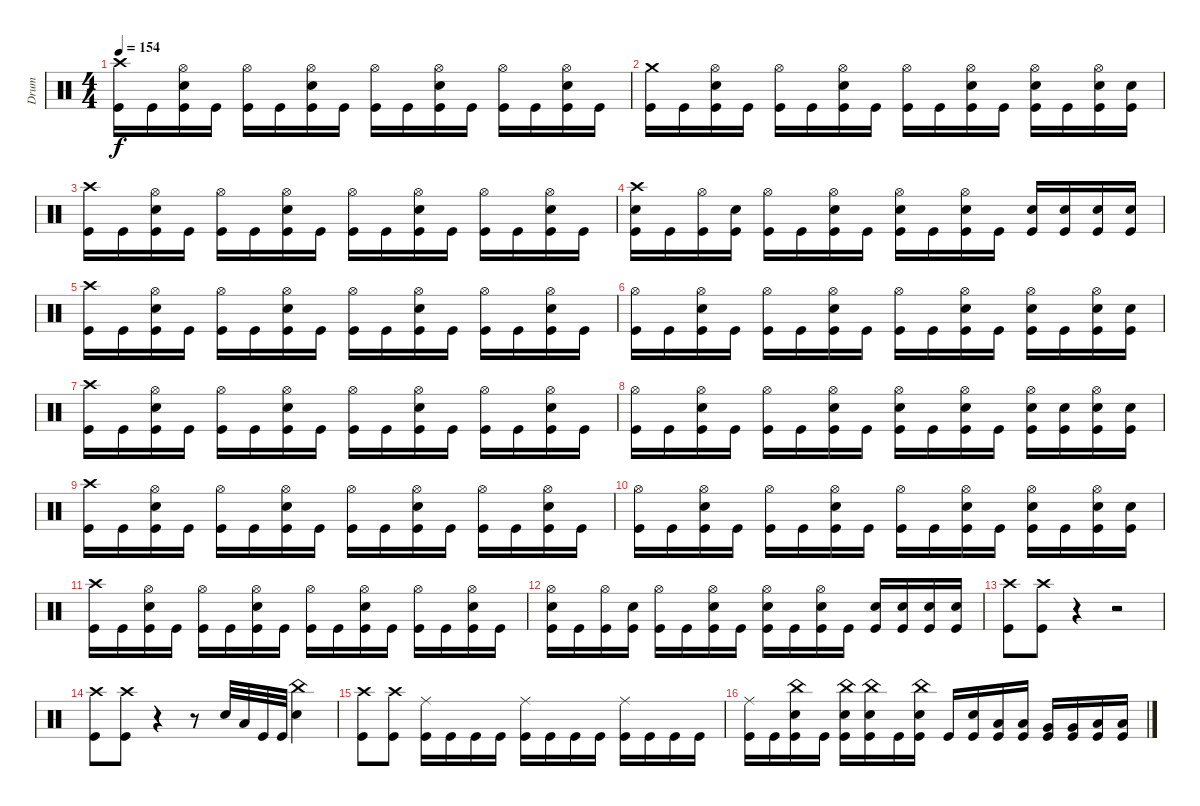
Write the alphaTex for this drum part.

\track ("Drum" "Drum") {instrument percussion}
\staff {score}
\articulation defaults
\ts (4 4)
\tempo 154
\clef neutral
\ks c
("Kick (hit)" "Crash high (hit)").16{dy f} "Kick (hit)".16 ("Kick (hit)" "Electric Snare (hit)" "Hi-Hat (open)").16 "Kick (hit)".16 ("Kick (hit)" "Hi-Hat (open)").16 "Kick (hit)".16 ("Kick (hit)" "Electric Snare (hit)" "Hi-Hat (open)").16 "Kick (hit)".16 ("Kick (hit)" "Hi-Hat (open)").16 "Kick (hit)".16 ("Kick (hit)" "Electric Snare (hit)" "Hi-Hat (open)").16 "Kick (hit)".16 ("Kick (hit)" "Hi-Hat (open)").16 "Kick (hit)".16 ("Kick (hit)" "Electric Snare (hit)" "Hi-Hat (open)").16 "Kick (hit)".16 |
("Kick (hit)" "Crash medium (hit)").16 "Kick (hit)".16 ("Kick (hit)" "Electric Snare (hit)" "Hi-Hat (open)").16 "Kick (hit)".16 ("Kick (hit)" "Hi-Hat (open)").16 "Kick (hit)".16 ("Kick (hit)" "Electric Snare (hit)" "Hi-Hat (open)").16 "Kick (hit)".16 ("Kick (hit)" "Hi-Hat (open)").16 "Kick (hit)".16 ("Kick (hit)" "Electric Snare (hit)" "Hi-Hat (open)").16 "Kick (hit)".16 ("Kick (hit)" "Electric Snare (hit)" "Hi-Hat (open)").16 "Kick (hit)".16 ("Kick (hit)" "Electric Snare (hit)" "Hi-Hat (open)").16 ("Kick (hit)" "Electric Snare (hit)").16 |
("Kick (hit)" "Crash high (hit)").16 "Kick (hit)".16 ("Kick (hit)" "Electric Snare (hit)" "Hi-Hat (open)").16 "Kick (hit)".16 ("Kick (hit)" "Hi-Hat (open)").16 "Kick (hit)".16 ("Kick (hit)" "Electric Snare (hit)" "Hi-Hat (open)").16 "Kick (hit)".16 ("Kick (hit)" "Hi-Hat (open)").16 "Kick (hit)".16 ("Kick (hit)" "Electric Snare (hit)" "Hi-Hat (open)").16 "Kick (hit)".16 ("Kick (hit)" "Hi-Hat (open)").16 "Kick (hit)".16 ("Kick (hit)" "Electric Snare (hit)" "Hi-Hat (open)").16 "Kick (hit)".16 |
("Kick (hit)" "Electric Snare (hit)" "Crash high (hit)").16 "Kick (hit)".16 ("Kick (hit)" "Hi-Hat (open)").16 ("Kick (hit)" "Electric Snare (hit)").16 ("Kick (hit)" "Hi-Hat (open)").16 "Kick (hit)".16 ("Kick (hit)" "Electric Snare (hit)" "Hi-Hat (open)").16 "Kick (hit)".16 ("Kick (hit)" "Electric Snare (hit)" "Hi-Hat (open)").16 "Kick (hit)".16 ("Kick (hit)" "Electric Snare (hit)" "Hi-Hat (open)").16 "Kick (hit)".16 ("Kick (hit)" "Electric Snare (hit)").16 ("Kick (hit)" "Electric Snare (hit)").16 ("Kick (hit)" "Electric Snare (hit)").16 ("Kick (hit)" "Electric Snare (hit)").16 |
("Kick (hit)" "Crash high (hit)").16 "Kick (hit)".16 ("Kick (hit)" "Electric Snare (hit)" "Hi-Hat (open)").16 "Kick (hit)".16 ("Kick (hit)" "Hi-Hat (open)").16 "Kick (hit)".16 ("Kick (hit)" "Electric Snare (hit)" "Hi-Hat (open)").16 "Kick (hit)".16 ("Kick (hit)" "Hi-Hat (open)").16 "Kick (hit)".16 ("Kick (hit)" "Electric Snare (hit)" "Hi-Hat (open)").16 "Kick (hit)".16 ("Kick (hit)" "Hi-Hat (open)").16 "Kick (hit)".16 ("Kick (hit)" "Electric Snare (hit)" "Hi-Hat (open)").16 "Kick (hit)".16 |
("Kick (hit)" "Hi-Hat (open)").16 "Kick (hit)".16 ("Kick (hit)" "Electric Snare (hit)" "Hi-Hat (open)").16 "Kick (hit)".16 ("Kick (hit)" "Hi-Hat (open)").16 "Kick (hit)".16 ("Kick (hit)" "Electric Snare (hit)" "Hi-Hat (open)").16 "Kick (hit)".16 ("Kick (hit)" "Hi-Hat (open)").16 "Kick (hit)".16 ("Kick (hit)" "Electric Snare (hit)" "Hi-Hat (open)").16 "Kick (hit)".16 ("Kick (hit)" "Electric Snare (hit)" "Hi-Hat (open)").16 "Kick (hit)".16 ("Kick (hit)" "Electric Snare (hit)" "Hi-Hat (open)").16 ("Kick (hit)" "Electric Snare (hit)").16 |
("Kick (hit)" "Crash high (hit)").16 "Kick (hit)".16 ("Kick (hit)" "Electric Snare (hit)" "Hi-Hat (open)").16 "Kick (hit)".16 ("Kick (hit)" "Hi-Hat (open)").16 "Kick (hit)".16 ("Kick (hit)" "Electric Snare (hit)" "Hi-Hat (open)").16 "Kick (hit)".16 ("Kick (hit)" "Hi-Hat (open)").16 "Kick (hit)".16 ("Kick (hit)" "Electric Snare (hit)" "Hi-Hat (open)").16 "Kick (hit)".16 ("Kick (hit)" "Hi-Hat (open)").16 "Kick (hit)".16 ("Kick (hit)" "Electric Snare (hit)" "Hi-Hat (open)").16 "Kick (hit)".16 |
("Kick (hit)" "Hi-Hat (open)").16 "Kick (hit)".16 ("Kick (hit)" "Electric Snare (hit)" "Hi-Hat (open)").16 "Kick (hit)".16 ("Kick (hit)" "Hi-Hat (open)").16 "Kick (hit)".16 ("Kick (hit)" "Electric Snare (hit)" "Hi-Hat (open)").16 "Kick (hit)".16 ("Kick (hit)" "Electric Snare (hit)" "Hi-Hat (open)").16 "Kick (hit)".16 ("Kick (hit)" "Electric Snare (hit)" "Hi-Hat (open)").16 "Kick (hit)".16 ("Kick (hit)" "Electric Snare (hit)" "Hi-Hat (open)").16 ("Kick (hit)" "Electric Snare (hit)").16 ("Kick (hit)" "Electric Snare (hit)" "Hi-Hat (open)").16 ("Kick (hit)" "Electric Snare (hit)").16 |
("Kick (hit)" "Crash high (hit)").16 "Kick (hit)".16 ("Kick (hit)" "Electric Snare (hit)" "Hi-Hat (open)").16 "Kick (hit)".16 ("Kick (hit)" "Hi-Hat (open)").16 "Kick (hit)".16 ("Kick (hit)" "Electric Snare (hit)" "Hi-Hat (open)").16 "Kick (hit)".16 ("Kick (hit)" "Hi-Hat (open)").16 "Kick (hit)".16 ("Kick (hit)" "Electric Snare (hit)" "Hi-Hat (open)").16 "Kick (hit)".16 ("Kick (hit)" "Hi-Hat (open)").16 "Kick (hit)".16 ("Kick (hit)" "Electric Snare (hit)" "Hi-Hat (open)").16 "Kick (hit)".16 |
("Kick (hit)" "Hi-Hat (open)").16 "Kick (hit)".16 ("Kick (hit)" "Electric Snare (hit)" "Hi-Hat (open)").16 "Kick (hit)".16 ("Kick (hit)" "Hi-Hat (open)").16 "Kick (hit)".16 ("Kick (hit)" "Electric Snare (hit)" "Hi-Hat (open)").16 "Kick (hit)".16 ("Kick (hit)" "Hi-Hat (open)").16 "Kick (hit)".16 ("Kick (hit)" "Electric Snare (hit)" "Hi-Hat (open)").16 "Kick (hit)".16 ("Kick (hit)" "Electric Snare (hit)" "Hi-Hat (open)").16 "Kick (hit)".16 ("Kick (hit)" "Electric Snare (hit)" "Hi-Hat (open)").16 ("Kick (hit)" "Electric Snare (hit)").16 |
("Kick (hit)" "Crash high (hit)").16 "Kick (hit)".16 ("Kick (hit)" "Electric Snare (hit)" "Hi-Hat (open)").16 "Kick (hit)".16 ("Kick (hit)" "Hi-Hat (open)").16 "Kick (hit)".16 ("Kick (hit)" "Electric Snare (hit)" "Hi-Hat (open)").16 "Kick (hit)".16 ("Kick (hit)" "Hi-Hat (open)").16 "Kick (hit)".16 ("Kick (hit)" "Electric Snare (hit)" "Hi-Hat (open)").16 "Kick (hit)".16 ("Kick (hit)" "Hi-Hat (open)").16 "Kick (hit)".16 ("Kick (hit)" "Electric Snare (hit)" "Hi-Hat (open)").16 "Kick (hit)".16 |
("Kick (hit)" "Electric Snare (hit)" "Hi-Hat (open)").16 "Kick (hit)".16 ("Kick (hit)" "Hi-Hat (open)").16 ("Kick (hit)" "Electric Snare (hit)").16 ("Kick (hit)" "Hi-Hat (open)").16 "Kick (hit)".16 ("Kick (hit)" "Electric Snare (hit)" "Hi-Hat (open)").16 "Kick (hit)".16 ("Kick (hit)" "Electric Snare (hit)" "Hi-Hat (open)").16 "Kick (hit)".16 ("Kick (hit)" "Electric Snare (hit)" "Hi-Hat (open)").16 "Kick (hit)".16 ("Kick (hit)" "Electric Snare (hit)").16 ("Kick (hit)" "Electric Snare (hit)").16 ("Kick (hit)" "Electric Snare (hit)").16 ("Kick (hit)" "Electric Snare (hit)").16 |
("Kick (hit)" "Crash high (hit)").8 ("Kick (hit)" "Crash high (hit)").8 r.4 r.2 |
("Kick (hit)" "Crash high (hit)").8 ("Kick (hit)" "Crash high (hit)").8 r.4 r.8 "Electric Snare (hit)".32 "Low Floor Tom (hit)".32 "Kick (hit)".32 "Kick (hit)".32 ("Electric Snare (hit)" "China (hit)").4 |
("Kick (hit)" "Crash high (hit)").8 ("Kick (hit)" "Crash high (hit)").8 ("Kick (hit)" "Ride (middle)").16 "Kick (hit)".16 "Kick (hit)".16 "Kick (hit)".16 ("Kick (hit)" "Ride (middle)").16 "Kick (hit)".16 "Kick (hit)".16 "Kick (hit)".16 ("Kick (hit)" "Ride (middle)").16 "Kick (hit)".16 "Kick (hit)".16 "Kick (hit)".16 |
("Kick (hit)" "Ride (middle)").16 "Kick (hit)".16 ("Kick (hit)" "Electric Snare (hit)" "China (hit)").16 "Kick (hit)".16 ("Kick (hit)" "Electric Snare (hit)" "China (hit)").16 ("Kick (hit)" "Electric Snare (hit)" "China (hit)").16 "Kick (hit)".16 ("Kick (hit)" "Electric Snare (hit)" "China (hit)").16 "Kick (hit)".16 ("Kick (hit)" "Electric Snare (hit)").16 ("Kick (hit)" "Low Tom (hit)").16 ("Kick (hit)" "Low Tom (hit)").16 ("Kick (hit)" "Very Low Tom (hit)").16 ("Kick (hit)" "Very Low Tom (hit)").16 ("Kick (hit)" "Low Floor Tom (hit)").16 ("Kick (hit)" "Low Floor Tom (hit)").16
